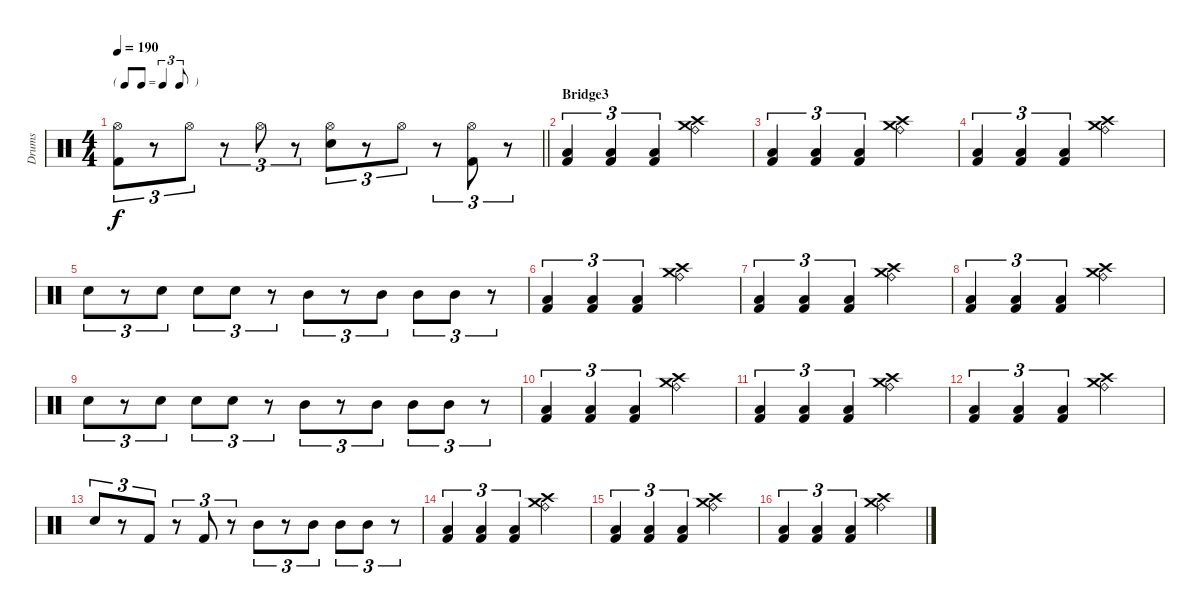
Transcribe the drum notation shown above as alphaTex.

\track ("Drums" "Drums") {instrument percussion}
\staff {score}
\articulation defaults
\ts (4 4)
\tf triplet8th
\tempo 190
\clef neutral
\barLineRight lightlight
\ks c
("Hi-Hat (open)" "Kick (hit) 2").8{tu (3 2) dy f} r.8{tu (3 2)} "Hi-Hat (open)".8{tu (3 2)} r.8{tu (3 2)} "Hi-Hat (open)".8{tu (3 2)} r.8{tu (3 2)} ("Hi-Hat (open)" "Electric Snare (hit)").8{tu (3 2)} r.8{tu (3 2)} "Hi-Hat (open)".8{tu (3 2)} r.8{tu (3 2)} ("Hi-Hat (open)" "Kick (hit) 2").8{tu (3 2)} r.8{tu (3 2)} |
\section ("" "Bridge3")
("Low Tom (hit)" "Kick (hit) 2").4{tu (3 2)} ("Low Tom (hit)" "Kick (hit) 2").4{tu (3 2)} ("Low Tom (hit)" "Kick (hit) 2").4{tu (3 2)} ("Ride (bell)" "Crash high (hit)" "Crash medium (hit)").2 |
("Low Tom (hit)" "Kick (hit) 2").4{tu (3 2)} ("Low Tom (hit)" "Kick (hit) 2").4{tu (3 2)} ("Low Tom (hit)" "Kick (hit) 2").4{tu (3 2)} ("Ride (bell)" "Crash high (hit)" "Crash medium (hit)").2 |
("Low Tom (hit)" "Kick (hit) 2").4{tu (3 2)} ("Low Tom (hit)" "Kick (hit) 2").4{tu (3 2)} ("Low Tom (hit)" "Kick (hit) 2").4{tu (3 2)} ("Ride (bell)" "Crash high (hit)" "Crash medium (hit)").2 |
"Electric Snare (hit)".8{tu (3 2)} r.8{tu (3 2)} "Electric Snare (hit)".8{tu (3 2)} "Electric Snare (hit)".8{tu (3 2)} "Electric Snare (hit)".8{tu (3 2)} r.8{tu (3 2)} "Mid Tom (hit)".8{tu (3 2)} r.8{tu (3 2)} "Mid Tom (hit)".8{tu (3 2)} "Mid Tom (hit)".8{tu (3 2)} "Mid Tom (hit)".8{tu (3 2)} r.8{tu (3 2)} |
("Low Tom (hit)" "Kick (hit) 2").4{tu (3 2)} ("Low Tom (hit)" "Kick (hit) 2").4{tu (3 2)} ("Low Tom (hit)" "Kick (hit) 2").4{tu (3 2)} ("Ride (bell)" "Crash high (hit)" "Crash medium (hit)").2 |
("Low Tom (hit)" "Kick (hit) 2").4{tu (3 2)} ("Low Tom (hit)" "Kick (hit) 2").4{tu (3 2)} ("Low Tom (hit)" "Kick (hit) 2").4{tu (3 2)} ("Ride (bell)" "Crash high (hit)" "Crash medium (hit)").2 |
("Low Tom (hit)" "Kick (hit) 2").4{tu (3 2)} ("Low Tom (hit)" "Kick (hit) 2").4{tu (3 2)} ("Low Tom (hit)" "Kick (hit) 2").4{tu (3 2)} ("Ride (bell)" "Crash high (hit)" "Crash medium (hit)").2 |
"Electric Snare (hit)".8{tu (3 2)} r.8{tu (3 2)} "Electric Snare (hit)".8{tu (3 2)} "Electric Snare (hit)".8{tu (3 2)} "Electric Snare (hit)".8{tu (3 2)} r.8{tu (3 2)} "Mid Tom (hit)".8{tu (3 2)} r.8{tu (3 2)} "Mid Tom (hit)".8{tu (3 2)} "Mid Tom (hit)".8{tu (3 2)} "Mid Tom (hit)".8{tu (3 2)} r.8{tu (3 2)} |
("Low Tom (hit)" "Kick (hit) 2").4{tu (3 2)} ("Low Tom (hit)" "Kick (hit) 2").4{tu (3 2)} ("Low Tom (hit)" "Kick (hit) 2").4{tu (3 2)} ("Ride (bell)" "Crash high (hit)" "Crash medium (hit)").2 |
("Low Tom (hit)" "Kick (hit) 2").4{tu (3 2)} ("Low Tom (hit)" "Kick (hit) 2").4{tu (3 2)} ("Low Tom (hit)" "Kick (hit) 2").4{tu (3 2)} ("Ride (bell)" "Crash high (hit)" "Crash medium (hit)").2 |
("Low Tom (hit)" "Kick (hit) 2").4{tu (3 2)} ("Low Tom (hit)" "Kick (hit) 2").4{tu (3 2)} ("Low Tom (hit)" "Kick (hit) 2").4{tu (3 2)} ("Ride (bell)" "Crash high (hit)" "Crash medium (hit)").2 |
"Electric Snare (hit)".8{tu (3 2)} r.8{tu (3 2)} "Kick (hit) 2".8{tu (3 2)} r.8{tu (3 2)} "Kick (hit) 2".8{tu (3 2)} r.8{tu (3 2)} "Mid Tom (hit)".8{tu (3 2)} r.8{tu (3 2)} "Mid Tom (hit)".8{tu (3 2)} "Mid Tom (hit)".8{tu (3 2)} "Mid Tom (hit)".8{tu (3 2)} r.8{tu (3 2)} |
("Low Tom (hit)" "Kick (hit) 2").4{tu (3 2)} ("Low Tom (hit)" "Kick (hit) 2").4{tu (3 2)} ("Low Tom (hit)" "Kick (hit) 2").4{tu (3 2)} ("Ride (bell)" "Crash high (hit)" "Crash medium (hit)").2 |
("Low Tom (hit)" "Kick (hit) 2").4{tu (3 2)} ("Low Tom (hit)" "Kick (hit) 2").4{tu (3 2)} ("Low Tom (hit)" "Kick (hit) 2").4{tu (3 2)} ("Ride (bell)" "Crash high (hit)" "Crash medium (hit)").2 |
("Low Tom (hit)" "Kick (hit) 2").4{tu (3 2)} ("Low Tom (hit)" "Kick (hit) 2").4{tu (3 2)} ("Low Tom (hit)" "Kick (hit) 2").4{tu (3 2)} ("Ride (bell)" "Crash high (hit)" "Crash medium (hit)").2
